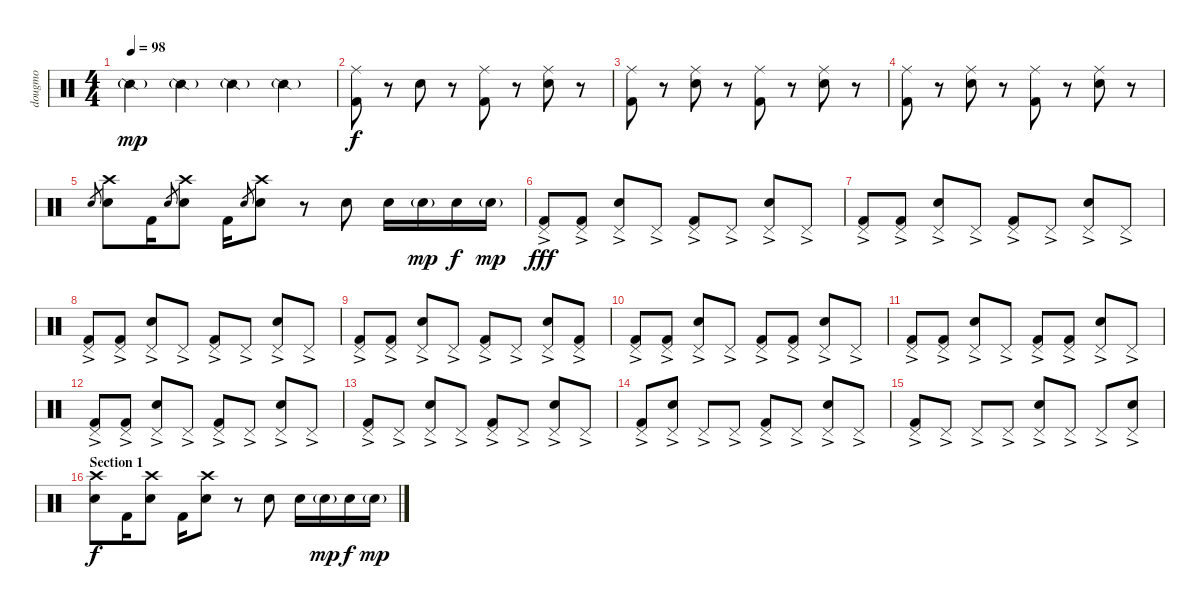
\track ("dougmo" "dougmo") {instrument percussion}
\staff {score}
\articulation defaults
\ts (4 4)
\tempo 98
\clef neutral
\ks c "Snare (side stick) 2"{g}.4{dy mp} "Snare (side stick) 2"{g}.4 "Snare (side stick) 2"{g}.4 "Snare (side stick) 2"{g}.4
|
("Ride (middle)" "Kick (hit) 2").8{dy f} r.8 "Electric Snare (hit)".8 r.8 ("Ride (middle)" "Kick (hit) 2").8 r.8 ("Ride (middle)" "Electric Snare (hit)").8 r.8 |
("Ride (middle)" "Kick (hit) 2").8 r.8 ("Ride (middle)" "Electric Snare (hit)").8 r.8 ("Ride (middle)" "Kick (hit) 2").8 r.8 ("Ride (middle)" "Electric Snare (hit)").8 r.8 |
("Ride (middle)" "Kick (hit) 2").8 r.8 ("Ride (middle)" "Electric Snare (hit)").8 r.8 ("Ride (middle)" "Kick (hit) 2").8 r.8 ("Ride (middle)" "Electric Snare (hit)").8 r.8 |
"Electric Snare (hit)".8{gr} ("Crash high (hit)" "Electric Snare (hit)").8 "Kick (hit) 2".16 "Electric Snare (hit)".8{gr} ("Crash high (hit)" "Electric Snare (hit)").8 "Kick (hit) 2".16 "Electric Snare (hit)".8{gr} ("Crash high (hit)" "Electric Snare (hit)").8 r.8 "Electric Snare (hit)".8 "Electric Snare (hit)".16 "Electric Snare (hit)"{g}.16{dy mp} "Electric Snare (hit)".16{dy f} "Electric Snare (hit)"{g}.16{dy mp} |
("Pedal Hi-Hat (hit)"{ac} "Kick (hit) 2").8{dy fff} ("Pedal Hi-Hat (hit)"{ac} "Kick (hit) 2").8 ("Pedal Hi-Hat (hit)"{ac} "Electric Snare (hit)").8 "Pedal Hi-Hat (hit)"{ac}.8 ("Pedal Hi-Hat (hit)"{ac} "Kick (hit) 2").8 "Pedal Hi-Hat (hit)"{ac}.8 ("Pedal Hi-Hat (hit)"{ac} "Electric Snare (hit)").8 "Pedal Hi-Hat (hit)"{ac}.8 |
("Pedal Hi-Hat (hit)"{ac} "Kick (hit) 2").8 ("Pedal Hi-Hat (hit)"{ac} "Kick (hit) 2").8 ("Pedal Hi-Hat (hit)"{ac} "Electric Snare (hit)").8 "Pedal Hi-Hat (hit)"{ac}.8 ("Pedal Hi-Hat (hit)"{ac} "Kick (hit) 2").8 "Pedal Hi-Hat (hit)"{ac}.8 ("Pedal Hi-Hat (hit)"{ac} "Electric Snare (hit)").8 "Pedal Hi-Hat (hit)"{ac}.8 |
("Pedal Hi-Hat (hit)"{ac} "Kick (hit) 2").8 ("Pedal Hi-Hat (hit)"{ac} "Kick (hit) 2").8 ("Pedal Hi-Hat (hit)"{ac} "Electric Snare (hit)").8 "Pedal Hi-Hat (hit)"{ac}.8 ("Pedal Hi-Hat (hit)"{ac} "Kick (hit) 2").8 "Pedal Hi-Hat (hit)"{ac}.8 ("Pedal Hi-Hat (hit)"{ac} "Electric Snare (hit)").8 "Pedal Hi-Hat (hit)"{ac}.8 |
("Pedal Hi-Hat (hit)"{ac} "Kick (hit) 2").8 ("Pedal Hi-Hat (hit)"{ac} "Kick (hit) 2").8 ("Pedal Hi-Hat (hit)"{ac} "Electric Snare (hit)").8 "Pedal Hi-Hat (hit)"{ac}.8 ("Pedal Hi-Hat (hit)"{ac} "Kick (hit) 2").8 "Pedal Hi-Hat (hit)"{ac}.8 ("Pedal Hi-Hat (hit)"{ac} "Electric Snare (hit)").8 ("Pedal Hi-Hat (hit)"{ac} "Kick (hit) 2").8 |
("Pedal Hi-Hat (hit)"{ac} "Kick (hit) 2").8 ("Pedal Hi-Hat (hit)"{ac} "Kick (hit) 2").8 ("Pedal Hi-Hat (hit)"{ac} "Electric Snare (hit)").8 "Pedal Hi-Hat (hit)"{ac}.8 ("Pedal Hi-Hat (hit)"{ac} "Kick (hit) 2").8 ("Pedal Hi-Hat (hit)"{ac} "Kick (hit) 2").8 ("Pedal Hi-Hat (hit)"{ac} "Electric Snare (hit)").8 "Pedal Hi-Hat (hit)"{ac}.8 |
("Pedal Hi-Hat (hit)"{ac} "Kick (hit) 2").8 ("Pedal Hi-Hat (hit)"{ac} "Kick (hit) 2").8 ("Pedal Hi-Hat (hit)"{ac} "Electric Snare (hit)").8 "Pedal Hi-Hat (hit)"{ac}.8 ("Pedal Hi-Hat (hit)"{ac} "Kick (hit) 2").8 ("Pedal Hi-Hat (hit)"{ac} "Kick (hit) 2").8 ("Pedal Hi-Hat (hit)"{ac} "Electric Snare (hit)").8 "Pedal Hi-Hat (hit)"{ac}.8 |
("Pedal Hi-Hat (hit)"{ac} "Kick (hit) 2").8 ("Pedal Hi-Hat (hit)"{ac} "Kick (hit) 2").8 ("Pedal Hi-Hat (hit)"{ac} "Electric Snare (hit)").8 "Pedal Hi-Hat (hit)"{ac}.8 ("Pedal Hi-Hat (hit)"{ac} "Kick (hit) 2").8 "Pedal Hi-Hat (hit)"{ac}.8 ("Pedal Hi-Hat (hit)"{ac} "Electric Snare (hit)").8 "Pedal Hi-Hat (hit)"{ac}.8 |
("Pedal Hi-Hat (hit)"{ac} "Kick (hit) 2").8 "Pedal Hi-Hat (hit)"{ac}.8 ("Pedal Hi-Hat (hit)"{ac} "Electric Snare (hit)").8 "Pedal Hi-Hat (hit)"{ac}.8 ("Pedal Hi-Hat (hit)"{ac} "Kick (hit) 2").8 "Pedal Hi-Hat (hit)"{ac}.8 ("Pedal Hi-Hat (hit)"{ac} "Electric Snare (hit)").8 "Pedal Hi-Hat (hit)"{ac}.8 |
("Pedal Hi-Hat (hit)"{ac} "Kick (hit) 2").8 ("Pedal Hi-Hat (hit)"{ac} "Electric Snare (hit)").8 "Pedal Hi-Hat (hit)"{ac}.8 "Pedal Hi-Hat (hit)"{ac}.8 ("Pedal Hi-Hat (hit)"{ac} "Kick (hit) 2").8 "Pedal Hi-Hat (hit)"{ac}.8 ("Pedal Hi-Hat (hit)"{ac} "Electric Snare (hit)").8 "Pedal Hi-Hat (hit)"{ac}.8 |
("Pedal Hi-Hat (hit)"{ac} "Kick (hit) 2").8 "Pedal Hi-Hat (hit)"{ac}.8 "Pedal Hi-Hat (hit)"{ac}.8 "Pedal Hi-Hat (hit)"{ac}.8 ("Pedal Hi-Hat (hit)"{ac} "Electric Snare (hit)").8 "Pedal Hi-Hat (hit)"{ac}.8 "Pedal Hi-Hat (hit)"{ac}.8 ("Pedal Hi-Hat (hit)"{ac} "Electric Snare (hit)").8 |
\section ("" "Section 1")
("Crash high (hit)" "Electric Snare (hit)").8{dy f} "Kick (hit) 2".16 ("Crash high (hit)" "Electric Snare (hit)").8 "Kick (hit) 2".16 ("Crash high (hit)" "Electric Snare (hit)").8 r.8 "Electric Snare (hit)".8 "Electric Snare (hit)".16 "Electric Snare (hit)"{g}.16{dy mp} "Electric Snare (hit)".16{dy f} "Electric Snare (hit)"{g}.16{dy mp}
